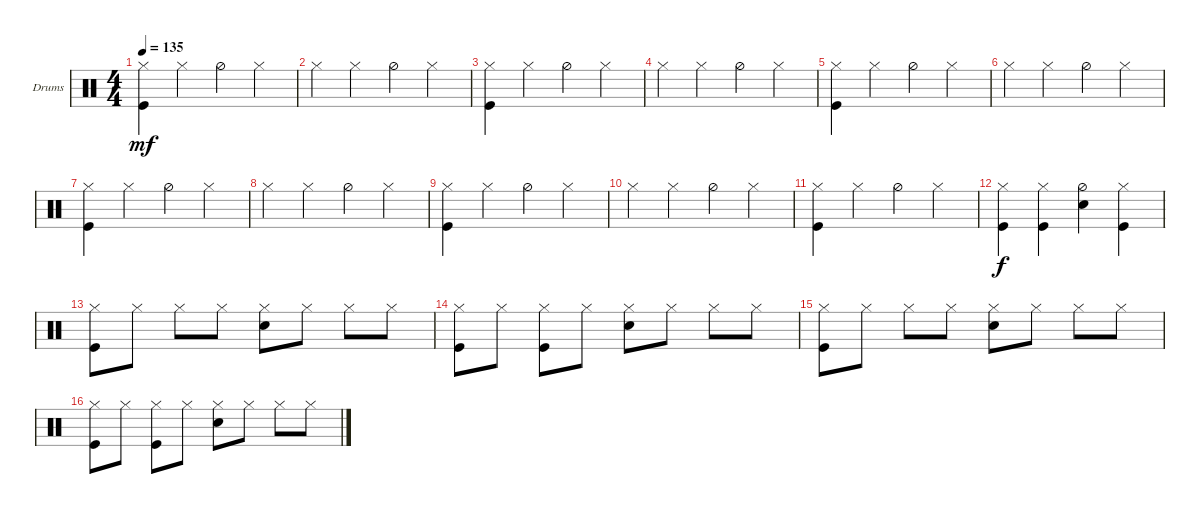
\defaultSystemsLayout 4
\bracketExtendMode groupsimilarinstruments
\firstSystemTrackNameOrientation horizontal
\otherSystemsTrackNameOrientation horizontal
\track ("Drumkit" "Drums") {instrument percussion}
\staff {score}
\articulation defaults
\ts (4 4)
\tempo 135
\clef neutral
\ks c
("Hi-Hat (closed)" "Kick (hit)").4{dy mf} "Hi-Hat (closed)".4 "Hi-Hat (half)".4 "Hi-Hat (closed)".4 |
"Hi-Hat (closed)".4 "Hi-Hat (closed)".4 "Hi-Hat (half)".4 "Hi-Hat (closed)".4 |
("Hi-Hat (closed)" "Kick (hit)").4 "Hi-Hat (closed)".4 "Hi-Hat (half)".4 "Hi-Hat (closed)".4 |
"Hi-Hat (closed)".4 "Hi-Hat (closed)".4 "Hi-Hat (half)".4 "Hi-Hat (closed)".4 |
("Hi-Hat (closed)" "Kick (hit)").4 "Hi-Hat (closed)".4 "Hi-Hat (half)".4 "Hi-Hat (closed)".4 |
"Hi-Hat (closed)".4 "Hi-Hat (closed)".4 "Hi-Hat (half)".4 "Hi-Hat (closed)".4 |
("Hi-Hat (closed)" "Kick (hit)").4 "Hi-Hat (closed)".4 "Hi-Hat (half)".4 "Hi-Hat (closed)".4 |
"Hi-Hat (closed)".4 "Hi-Hat (closed)".4 "Hi-Hat (half)".4 "Hi-Hat (closed)".4 |
("Hi-Hat (closed)" "Kick (hit)").4 "Hi-Hat (closed)".4 "Hi-Hat (half)".4 "Hi-Hat (closed)".4 |
"Hi-Hat (closed)".4 "Hi-Hat (closed)".4 "Hi-Hat (half)".4 "Hi-Hat (closed)".4 |
("Hi-Hat (closed)" "Kick (hit)").4 "Hi-Hat (closed)".4 "Hi-Hat (half)".4 "Hi-Hat (closed)".4 |
("Hi-Hat (closed)" "Kick (hit)").4{dy f} ("Hi-Hat (closed)" "Kick (hit)").4 ("Hi-Hat (half)" "Snare (hit) 2").4 ("Hi-Hat (closed)" "Kick (hit)").4 |
("Kick (hit)" "Hi-Hat (closed)").8 "Hi-Hat (closed)".8 "Hi-Hat (closed)".8 "Hi-Hat (closed)".8 ("Hi-Hat (closed)" "Snare (hit) 2").8 "Hi-Hat (closed)".8 "Hi-Hat (closed)".8 "Hi-Hat (closed)".8 |
("Hi-Hat (closed)" "Kick (hit)").8 "Hi-Hat (closed)".8 ("Hi-Hat (closed)" "Kick (hit)").8 "Hi-Hat (closed)".8 ("Hi-Hat (closed)" "Snare (hit) 2").8 "Hi-Hat (closed)".8 "Hi-Hat (closed)".8 "Hi-Hat (closed)".8 |
("Kick (hit)" "Hi-Hat (closed)").8 "Hi-Hat (closed)".8 "Hi-Hat (closed)".8 "Hi-Hat (closed)".8 ("Hi-Hat (closed)" "Snare (hit) 2").8 "Hi-Hat (closed)".8 "Hi-Hat (closed)".8 "Hi-Hat (closed)".8 |
("Hi-Hat (closed)" "Kick (hit)").8 "Hi-Hat (closed)".8 ("Hi-Hat (closed)" "Kick (hit)").8 "Hi-Hat (closed)".8 ("Hi-Hat (closed)" "Snare (hit) 2").8 "Hi-Hat (closed)".8 "Hi-Hat (closed)".8 "Hi-Hat (closed)".8
